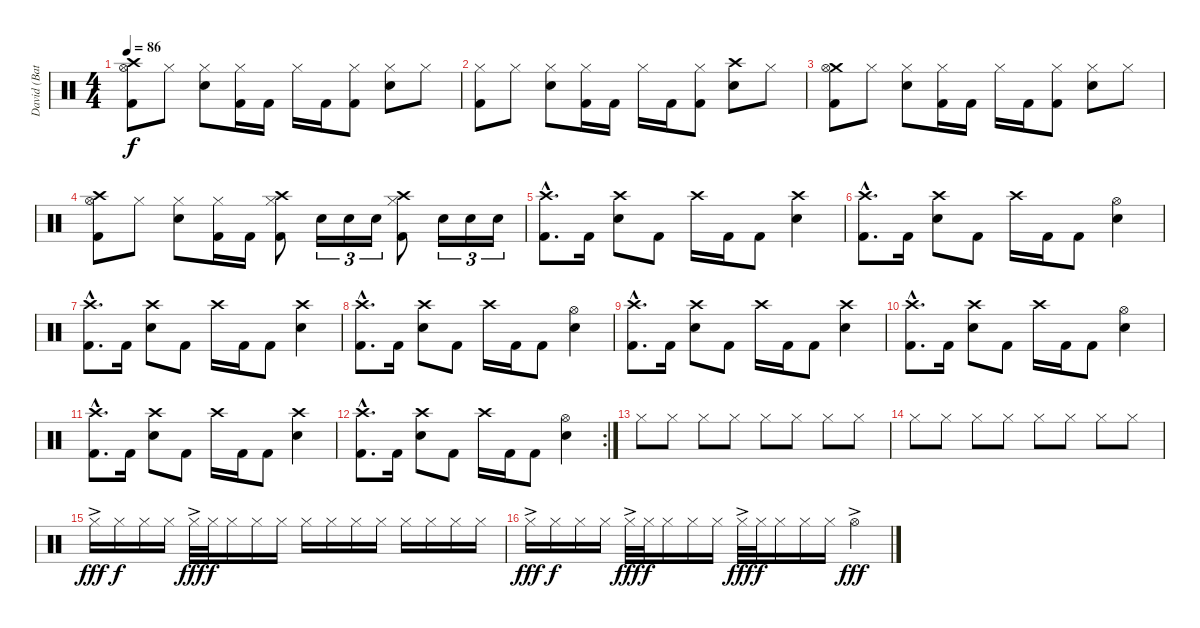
\track ("David (Batterie)" "David (Bat") {instrument percussion}
\staff {score}
\articulation defaults
\ts (4 4)
\tempo 86
\clef neutral
\ks c
("Crash high (hit)" "Hi-Hat (open)" "Kick (hit) 2").8{dy f} "Hi-Hat (closed)".8 ("Hi-Hat (closed)" "Electric Snare (hit)").8 ("Hi-Hat (closed)" "Kick (hit) 2").16 "Kick (hit) 2".16 "Hi-Hat (closed)".16 "Kick (hit) 2".16 ("Hi-Hat (closed)" "Kick (hit) 2").8 ("Hi-Hat (closed)" "Electric Snare (hit)").8 "Hi-Hat (closed)".8 |
("Hi-Hat (closed)" "Kick (hit) 2").8 "Hi-Hat (closed)".8 ("Hi-Hat (closed)" "Electric Snare (hit)").8 ("Hi-Hat (closed)" "Kick (hit) 2").16 "Kick (hit) 2".16 "Hi-Hat (closed)".16 "Kick (hit) 2".16 ("Hi-Hat (closed)" "Kick (hit) 2").8 ("Crash high (hit)" "Electric Snare (hit)").8 "Hi-Hat (closed)".8 |
("Crash medium (hit)" "Hi-Hat (open)" "Kick (hit) 2").8 "Hi-Hat (closed)".8 ("Hi-Hat (closed)" "Electric Snare (hit)").8 ("Hi-Hat (closed)" "Kick (hit) 2").16 "Kick (hit) 2".16 "Hi-Hat (closed)".16 "Kick (hit) 2".16 ("Hi-Hat (closed)" "Kick (hit) 2").8 ("Hi-Hat (closed)" "Electric Snare (hit)").8 "Hi-Hat (closed)".8 |
("Crash high (hit)" "Hi-Hat (open)" "Kick (hit) 2").8 "Hi-Hat (closed)".8 ("Hi-Hat (closed)" "Electric Snare (hit)").8 ("Hi-Hat (closed)" "Kick (hit) 2").16 "Kick (hit) 2".16 ("Crash high (hit)" "Hi-Hat (closed)" "Kick (hit) 2").8 "Electric Snare (hit)".16{tu (3 2)} "Electric Snare (hit)".16{tu (3 2)} "Electric Snare (hit)".16{tu (3 2)} ("Crash high (hit)" "Hi-Hat (closed)" "Kick (hit) 2").8 "Electric Snare (hit)".16{tu (3 2)} "Electric Snare (hit)".16{tu (3 2)} "Electric Snare (hit)".16{tu (3 2)} |
("Crash high (hit)"{hac} "Kick (hit) 2"{hac}).8{d} "Kick (hit) 2".16 ("Crash high (hit)" "Electric Snare (hit)").8 "Kick (hit) 2".8 "Crash high (hit)".16 "Kick (hit) 2".16 "Kick (hit) 2".8 ("Crash high (hit)" "Electric Snare (hit)").4 |
("Crash high (hit)"{hac} "Kick (hit) 2"{hac}).8{d} "Kick (hit) 2".16 ("Crash high (hit)" "Electric Snare (hit)").8 "Kick (hit) 2".8 "Crash high (hit)".16 "Kick (hit) 2".16 "Kick (hit) 2".8 ("Hi-Hat (open)" "Electric Snare (hit)").4 |
("Crash high (hit)"{hac} "Kick (hit) 2"{hac}).8{d} "Kick (hit) 2".16 ("Crash high (hit)" "Electric Snare (hit)").8 "Kick (hit) 2".8 "Crash high (hit)".16 "Kick (hit) 2".16 "Kick (hit) 2".8 ("Crash high (hit)" "Electric Snare (hit)").4 |
("Crash high (hit)"{hac} "Kick (hit) 2"{hac}).8{d} "Kick (hit) 2".16 ("Crash high (hit)" "Electric Snare (hit)").8 "Kick (hit) 2".8 "Crash high (hit)".16 "Kick (hit) 2".16 "Kick (hit) 2".8 ("Hi-Hat (open)" "Electric Snare (hit)").4 |
("Crash high (hit)"{hac} "Kick (hit) 2"{hac}).8{d} "Kick (hit) 2".16 ("Crash high (hit)" "Electric Snare (hit)").8 "Kick (hit) 2".8 "Crash high (hit)".16 "Kick (hit) 2".16 "Kick (hit) 2".8 ("Crash high (hit)" "Electric Snare (hit)").4 |
("Crash high (hit)"{hac} "Kick (hit) 2"{hac}).8{d} "Kick (hit) 2".16 ("Crash high (hit)" "Electric Snare (hit)").8 "Kick (hit) 2".8 "Crash high (hit)".16 "Kick (hit) 2".16 "Kick (hit) 2".8 ("Hi-Hat (open)" "Electric Snare (hit)").4 |
("Crash high (hit)"{hac} "Kick (hit) 2"{hac}).8{d} "Kick (hit) 2".16 ("Crash high (hit)" "Electric Snare (hit)").8 "Kick (hit) 2".8 "Crash high (hit)".16 "Kick (hit) 2".16 "Kick (hit) 2".8 ("Crash high (hit)" "Electric Snare (hit)").4 |
\rc 2
("Crash high (hit)"{hac} "Kick (hit) 2"{hac}).8{d} "Kick (hit) 2".16 ("Crash high (hit)" "Electric Snare (hit)").8 "Kick (hit) 2".8 "Crash high (hit)".16 "Kick (hit) 2".16 "Kick (hit) 2".8 ("Hi-Hat (open)" "Electric Snare (hit)").4 |
"Hi-Hat (closed)".8 "Hi-Hat (closed)".8 "Hi-Hat (closed)".8 "Hi-Hat (closed)".8 "Hi-Hat (closed)".8 "Hi-Hat (closed)".8 "Hi-Hat (closed)".8 "Hi-Hat (closed)".8 |
"Hi-Hat (closed)".8 "Hi-Hat (closed)".8 "Hi-Hat (closed)".8 "Hi-Hat (closed)".8 "Hi-Hat (closed)".8 "Hi-Hat (closed)".8 "Hi-Hat (closed)".8 "Hi-Hat (closed)".8 |
"Hi-Hat (closed)"{ac}.16{dy fff} "Hi-Hat (closed)".16{dy f} "Hi-Hat (closed)".16 "Hi-Hat (closed)".16 "Hi-Hat (closed)"{ac}.32{dy fff} "Hi-Hat (closed)".32{dy f} "Hi-Hat (closed)".16 "Hi-Hat (closed)".16 "Hi-Hat (closed)".16 "Hi-Hat (closed)".16 "Hi-Hat (closed)".16 "Hi-Hat (closed)".16 "Hi-Hat (closed)".16 "Hi-Hat (closed)".16 "Hi-Hat (closed)".16 "Hi-Hat (closed)".16 "Hi-Hat (closed)".16 |
"Hi-Hat (closed)"{ac}.16{dy fff} "Hi-Hat (closed)".16{dy f} "Hi-Hat (closed)".16 "Hi-Hat (closed)".16 "Hi-Hat (closed)"{ac}.32{dy fff} "Hi-Hat (closed)".32{dy f} "Hi-Hat (closed)".16 "Hi-Hat (closed)".16 "Hi-Hat (closed)".16 "Hi-Hat (closed)"{ac}.32{dy fff} "Hi-Hat (closed)".32{dy f} "Hi-Hat (closed)".16 "Hi-Hat (closed)".16 "Hi-Hat (closed)".16 "Hi-Hat (open)"{ac}.4{dy fff}
